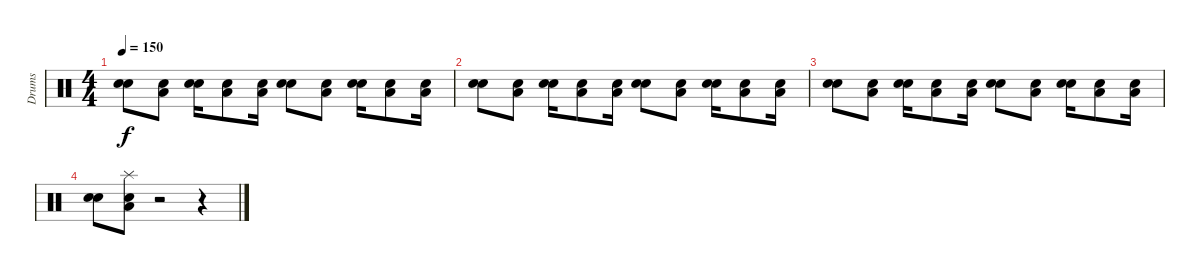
\track ("Drums" "Drums") {instrument percussion}
\staff {score}
\articulation defaults
\ts (4 4)
\tempo 150
\clef neutral
\ks c
("Snare (hit)" "Electric Snare (hit)").8{dy f} ("Snare (hit)" "Low Floor Tom (hit)").8 ("Snare (hit)" "Electric Snare (hit)").16 ("Snare (hit)" "Low Floor Tom (hit)").8 ("Snare (hit)" "Low Floor Tom (hit)").16 ("Snare (hit)" "Electric Snare (hit)").8 ("Snare (hit)" "Low Floor Tom (hit)").8 ("Snare (hit)" "Electric Snare (hit)").16 ("Snare (hit)" "Low Floor Tom (hit)").8 ("Snare (hit)" "Low Floor Tom (hit)").16 |
("Snare (hit)" "Electric Snare (hit)").8 ("Snare (hit)" "Low Floor Tom (hit)").8 ("Snare (hit)" "Electric Snare (hit)").16 ("Snare (hit)" "Low Floor Tom (hit)").8 ("Snare (hit)" "Low Floor Tom (hit)").16 ("Snare (hit)" "Electric Snare (hit)").8 ("Snare (hit)" "Low Floor Tom (hit)").8 ("Snare (hit)" "Electric Snare (hit)").16 ("Snare (hit)" "Low Floor Tom (hit)").8 ("Snare (hit)" "Low Floor Tom (hit)").16 |
("Snare (hit)" "Electric Snare (hit)").8 ("Snare (hit)" "Low Floor Tom (hit)").8 ("Snare (hit)" "Electric Snare (hit)").16 ("Snare (hit)" "Low Floor Tom (hit)").8 ("Snare (hit)" "Low Floor Tom (hit)").16 ("Snare (hit)" "Electric Snare (hit)").8 ("Snare (hit)" "Low Floor Tom (hit)").8 ("Snare (hit)" "Electric Snare (hit)").16 ("Snare (hit)" "Low Floor Tom (hit)").8 ("Snare (hit)" "Low Floor Tom (hit)").16 |
("Snare (hit)" "Electric Snare (hit)").8 ("Snare (hit)" "Low Floor Tom (hit)" "Splash (hit)").8 r.2 r.4
